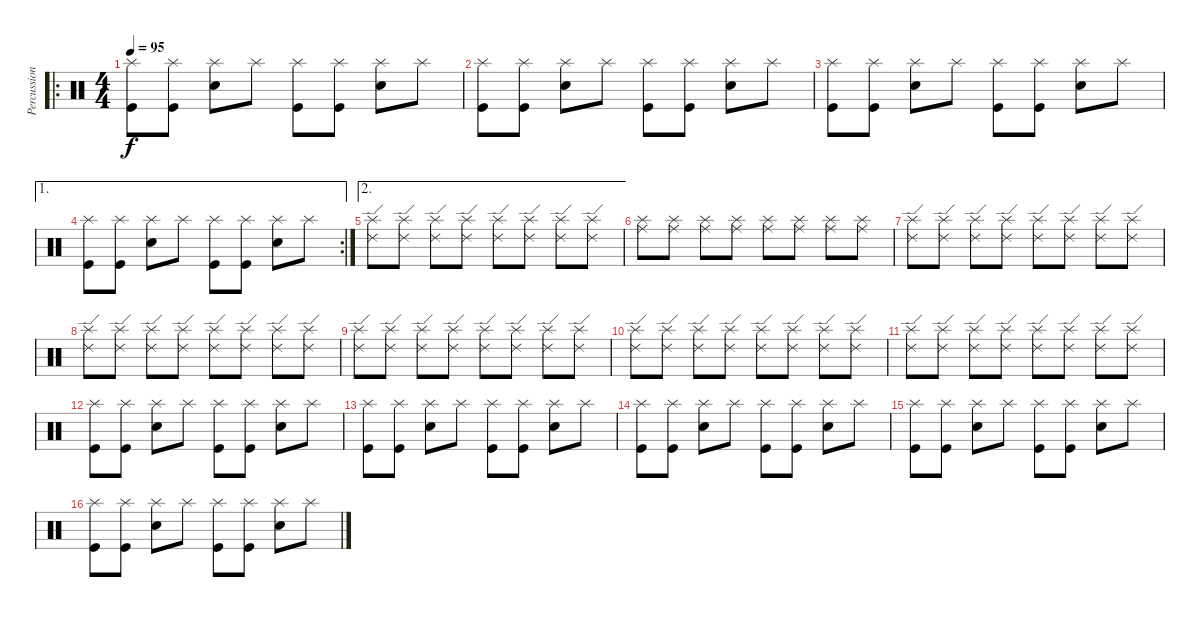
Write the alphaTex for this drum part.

\track ("Percussions" "Percussion") {instrument percussion}
\staff {score}
\articulation defaults
\ro
\ts (4 4)
\tempo 95
\clef neutral
\ks c
("Splash (hit)" "Kick (hit)").8{dy f} ("Splash (hit)" "Kick (hit)").8 ("Splash (hit)" "Electric Snare (hit)").8 "Splash (hit)".8 ("Splash (hit)" "Kick (hit)").8 ("Splash (hit)" "Kick (hit)").8 ("Splash (hit)" "Electric Snare (hit)").8 "Splash (hit)".8 |
("Splash (hit)" "Kick (hit)").8 ("Splash (hit)" "Kick (hit)").8 ("Splash (hit)" "Electric Snare (hit)").8 "Splash (hit)".8 ("Splash (hit)" "Kick (hit)").8 ("Splash (hit)" "Kick (hit)").8 ("Splash (hit)" "Electric Snare (hit)").8 "Splash (hit)".8 |
("Splash (hit)" "Kick (hit)").8 ("Splash (hit)" "Kick (hit)").8 ("Splash (hit)" "Electric Snare (hit)").8 "Splash (hit)".8 ("Splash (hit)" "Kick (hit)").8 ("Splash (hit)" "Kick (hit)").8 ("Splash (hit)" "Electric Snare (hit)").8 "Splash (hit)".8 |
\ae 1
\rc 2
("Splash (hit)" "Kick (hit)").8 ("Splash (hit)" "Kick (hit)").8 ("Splash (hit)" "Electric Snare (hit)").8 "Splash (hit)".8 ("Splash (hit)" "Kick (hit)").8 ("Splash (hit)" "Kick (hit)").8 ("Splash (hit)" "Electric Snare (hit)").8 "Splash (hit)".8 |
\ae 2
("Ride (edge) 2" "Splash (hit)").8{volume 7} ("Ride (edge) 2" "Splash (hit)").8 ("Ride (edge) 2" "Splash (hit)").8 ("Ride (edge) 2" "Splash (hit)").8 ("Ride (edge) 2" "Splash (hit)").8 ("Ride (edge) 2" "Splash (hit)").8 ("Ride (edge) 2" "Splash (hit)").8 ("Ride (edge) 2" "Splash (hit)").8 |
("Ride (middle)" "Splash (hit)").8 ("Ride (middle)" "Splash (hit)").8 ("Ride (middle)" "Splash (hit)").8 ("Ride (middle)" "Splash (hit)").8 ("Ride (middle)" "Splash (hit)").8 ("Ride (middle)" "Splash (hit)").8 ("Ride (middle)" "Splash (hit)").8 ("Ride (middle)" "Splash (hit)").8 |
("Ride (edge) 2" "Splash (hit)").8 ("Ride (edge) 2" "Splash (hit)").8 ("Ride (edge) 2" "Splash (hit)").8 ("Ride (edge) 2" "Splash (hit)").8 ("Ride (edge) 2" "Splash (hit)").8 ("Ride (edge) 2" "Splash (hit)").8 ("Ride (edge) 2" "Splash (hit)").8 ("Ride (edge) 2" "Splash (hit)").8 |
("Ride (edge) 2" "Splash (hit)").8 ("Ride (edge) 2" "Splash (hit)").8 ("Ride (edge) 2" "Splash (hit)").8 ("Ride (edge) 2" "Splash (hit)").8 ("Ride (edge) 2" "Splash (hit)").8 ("Ride (edge) 2" "Splash (hit)").8 ("Ride (edge) 2" "Splash (hit)").8 ("Ride (edge) 2" "Splash (hit)").8 |
("Ride (edge) 2" "Splash (hit)").8 ("Ride (edge) 2" "Splash (hit)").8 ("Ride (edge) 2" "Splash (hit)").8 ("Ride (edge) 2" "Splash (hit)").8 ("Ride (edge) 2" "Splash (hit)").8 ("Ride (edge) 2" "Splash (hit)").8 ("Ride (edge) 2" "Splash (hit)").8 ("Ride (edge) 2" "Splash (hit)").8 |
("Ride (edge) 2" "Splash (hit)").8 ("Ride (edge) 2" "Splash (hit)").8 ("Ride (edge) 2" "Splash (hit)").8 ("Ride (edge) 2" "Splash (hit)").8 ("Ride (edge) 2" "Splash (hit)").8 ("Ride (edge) 2" "Splash (hit)").8 ("Ride (edge) 2" "Splash (hit)").8 ("Ride (edge) 2" "Splash (hit)").8 |
("Ride (edge) 2" "Splash (hit)").8{volume 13} ("Ride (edge) 2" "Splash (hit)").8 ("Ride (edge) 2" "Splash (hit)").8 ("Ride (edge) 2" "Splash (hit)").8 ("Ride (edge) 2" "Splash (hit)").8 ("Ride (edge) 2" "Splash (hit)").8 ("Ride (edge) 2" "Splash (hit)").8 ("Ride (edge) 2" "Splash (hit)").8 |
("Splash (hit)" "Kick (hit)").8 ("Splash (hit)" "Kick (hit)").8 ("Splash (hit)" "Electric Snare (hit)").8 "Splash (hit)".8 ("Splash (hit)" "Kick (hit)").8 ("Splash (hit)" "Kick (hit)").8 ("Splash (hit)" "Electric Snare (hit)").8 "Splash (hit)".8 |
("Splash (hit)" "Kick (hit)").8 ("Splash (hit)" "Kick (hit)").8 ("Splash (hit)" "Electric Snare (hit)").8 "Splash (hit)".8 ("Splash (hit)" "Kick (hit)").8 ("Splash (hit)" "Kick (hit)").8 ("Splash (hit)" "Electric Snare (hit)").8 "Splash (hit)".8 |
("Splash (hit)" "Kick (hit)").8 ("Splash (hit)" "Kick (hit)").8 ("Splash (hit)" "Electric Snare (hit)").8 "Splash (hit)".8 ("Splash (hit)" "Kick (hit)").8 ("Splash (hit)" "Kick (hit)").8 ("Splash (hit)" "Electric Snare (hit)").8 "Splash (hit)".8 |
("Splash (hit)" "Kick (hit)").8 ("Splash (hit)" "Kick (hit)").8 ("Splash (hit)" "Electric Snare (hit)").8 "Splash (hit)".8 ("Splash (hit)" "Kick (hit)").8 ("Splash (hit)" "Kick (hit)").8 ("Splash (hit)" "Electric Snare (hit)").8 "Splash (hit)".8 |
("Splash (hit)" "Kick (hit)").8 ("Splash (hit)" "Kick (hit)").8 ("Splash (hit)" "Electric Snare (hit)").8 "Splash (hit)".8 ("Splash (hit)" "Kick (hit)").8 ("Splash (hit)" "Kick (hit)").8 ("Splash (hit)" "Electric Snare (hit)").8 "Splash (hit)".8
